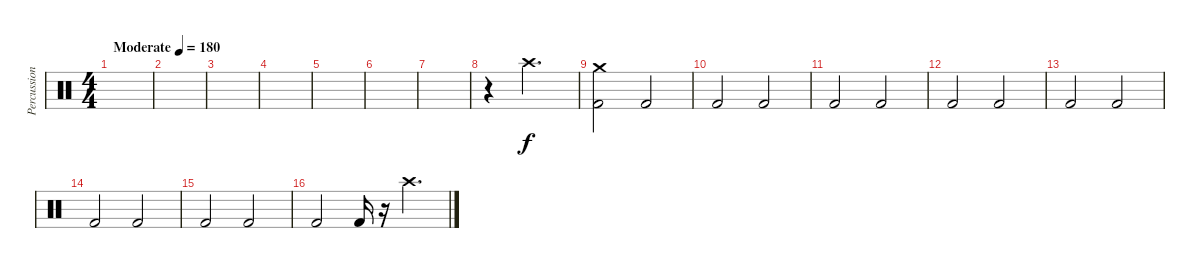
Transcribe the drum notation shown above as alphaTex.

\track ("Percussion" "Percussion") {instrument percussion}
\staff {score}
\articulation defaults
\ts (4 4)
\tempo (180 "Moderate")
\clef neutral
\ks c
|
|
|
|
|
|
|
r.4{volume 0} "Crash high (hit)".2{d volume 13} |
("Crash medium (hit)" "Kick (hit) 2").2 "Kick (hit) 2".2 |
"Kick (hit) 2".2 "Kick (hit) 2".2 |
"Kick (hit) 2".2 "Kick (hit) 2".2 |
"Kick (hit) 2".2 "Kick (hit) 2".2 |
"Kick (hit) 2".2 "Kick (hit) 2".2 |
"Kick (hit) 2".2 "Kick (hit) 2".2 |
"Kick (hit) 2".2 "Kick (hit) 2".2 |
"Kick (hit) 2".2 "Kick (hit) 2".16 r.16{volume 0} "Crash high (hit)".4{d volume 16}
